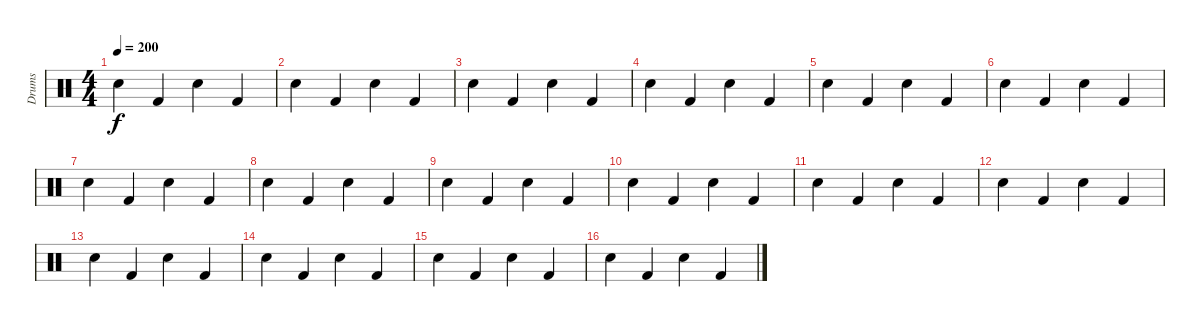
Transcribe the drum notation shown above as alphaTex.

\track ("Drums" "Drums") {instrument percussion}
\staff {score}
\articulation defaults
\ts (4 4)
\tempo 200
\clef neutral
\ks c "Snare (hit) 2".4{dy f} "Kick (hit) 2".4 "Snare (hit) 2".4 "Kick (hit) 2".4
|
"Snare (hit) 2".4 "Kick (hit) 2".4 "Snare (hit) 2".4 "Kick (hit) 2".4 |
"Snare (hit) 2".4 "Kick (hit) 2".4 "Snare (hit) 2".4 "Kick (hit) 2".4 |
"Snare (hit) 2".4 "Kick (hit) 2".4 "Snare (hit) 2".4 "Kick (hit) 2".4 |
"Snare (hit) 2".4 "Kick (hit) 2".4 "Snare (hit) 2".4 "Kick (hit) 2".4 |
"Snare (hit) 2".4 "Kick (hit) 2".4 "Snare (hit) 2".4 "Kick (hit) 2".4 |
"Snare (hit) 2".4 "Kick (hit) 2".4 "Snare (hit) 2".4 "Kick (hit) 2".4 |
"Snare (hit) 2".4 "Kick (hit) 2".4 "Snare (hit) 2".4 "Kick (hit) 2".4 |
"Snare (hit) 2".4 "Kick (hit) 2".4 "Snare (hit) 2".4 "Kick (hit) 2".4 |
"Snare (hit) 2".4 "Kick (hit) 2".4 "Snare (hit) 2".4 "Kick (hit) 2".4 |
"Snare (hit) 2".4 "Kick (hit) 2".4 "Snare (hit) 2".4 "Kick (hit) 2".4 |
"Snare (hit) 2".4 "Kick (hit) 2".4 "Snare (hit) 2".4 "Kick (hit) 2".4 |
"Snare (hit) 2".4 "Kick (hit) 2".4 "Snare (hit) 2".4 "Kick (hit) 2".4 |
"Snare (hit) 2".4 "Kick (hit) 2".4 "Snare (hit) 2".4 "Kick (hit) 2".4 |
"Snare (hit) 2".4 "Kick (hit) 2".4 "Snare (hit) 2".4 "Kick (hit) 2".4 |
"Snare (hit) 2".4 "Kick (hit) 2".4 "Snare (hit) 2".4 "Kick (hit) 2".4
